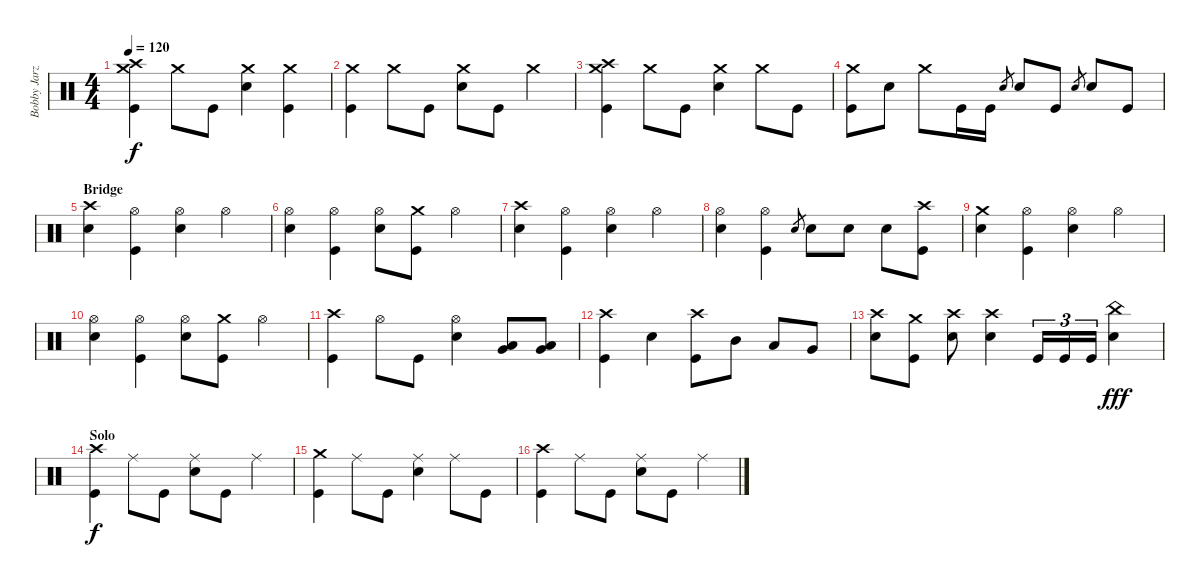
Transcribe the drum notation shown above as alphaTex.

\track ("Bobby Jarzombek" "Bobby Jarz") {instrument percussion}
\staff {score}
\articulation defaults
\ts (4 4)
\tempo 120
\clef neutral
\ks c
("Crash high (hit)" "Crash medium (hit)" "Kick (hit)").4{dy f} "Crash medium (hit)".8 "Kick (hit)".8 ("Crash medium (hit)" "Electric Snare (hit)").4 ("Crash medium (hit)" "Kick (hit)").4 |
("Crash medium (hit)" "Kick (hit)").4 "Crash medium (hit)".8 "Kick (hit)".8 ("Crash medium (hit)" "Electric Snare (hit)").8 "Kick (hit)".8 "Crash medium (hit)".4 |
("Crash high (hit)" "Crash medium (hit)" "Kick (hit)").4 "Crash medium (hit)".8 "Kick (hit)".8 ("Crash medium (hit)" "Electric Snare (hit)").4 "Crash medium (hit)".8 "Kick (hit)".8 |
("Crash medium (hit)" "Kick (hit)").8 "Electric Snare (hit)".8 "Crash medium (hit)".8 "Kick (hit)".16 "Kick (hit)".16 "Electric Snare (hit)".8{gr} "Electric Snare (hit)".8 "Kick (hit)".8 "Electric Snare (hit)".8{gr} "Electric Snare (hit)".8 "Kick (hit)".8 |
\section ("" "Bridge")
("Crash high (hit)" "Electric Snare (hit)").4 ("Hi-Hat (open)" "Kick (hit)").4 ("Hi-Hat (open)" "Electric Snare (hit)").4 "Hi-Hat (open)".4 |
("Hi-Hat (open)" "Electric Snare (hit)").4 ("Hi-Hat (open)" "Kick (hit)").4 ("Hi-Hat (open)" "Electric Snare (hit)").8 ("Crash medium (hit)" "Kick (hit)").8 "Hi-Hat (open)".4 |
("Crash high (hit)" "Electric Snare (hit)").4 ("Hi-Hat (open)" "Kick (hit)").4 ("Hi-Hat (open)" "Electric Snare (hit)").4 "Hi-Hat (open)".4 |
("Hi-Hat (open)" "Electric Snare (hit)").4 ("Hi-Hat (open)" "Kick (hit)").4 "Electric Snare (hit)".8{gr} "Electric Snare (hit)".8 "Electric Snare (hit)".8 "Electric Snare (hit)".8 ("Crash high (hit)" "Kick (hit)").8 |
("Crash medium (hit)" "Electric Snare (hit)").4 ("Hi-Hat (open)" "Kick (hit)").4 ("Hi-Hat (open)" "Electric Snare (hit)").4 "Hi-Hat (open)".4 |
("Hi-Hat (open)" "Electric Snare (hit)").4 ("Hi-Hat (open)" "Kick (hit)").4 ("Hi-Hat (open)" "Electric Snare (hit)").8 ("Crash medium (hit)" "Kick (hit)").8 "Hi-Hat (open)".4 |
("Crash high (hit)" "Kick (hit)").4 "Hi-Hat (open)".8 "Kick (hit)".8 ("Hi-Hat (open)" "Electric Snare (hit)").4 ("Very Low Tom (hit)" "Low Tom (hit)").8 ("Very Low Tom (hit)" "Low Tom (hit)").8 |
("Crash high (hit)" "Kick (hit)").4 "Electric Snare (hit)".4 ("Crash high (hit)" "Kick (hit)").8 "Mid Tom (hit)".8 "Low Tom (hit)".8 "Very Low Tom (hit)".8 |
("Crash high (hit)" "Electric Snare (hit)").8 ("Crash medium (hit)" "Kick (hit)").8 ("Crash high (hit)" "Electric Snare (hit)").8 ("Crash high (hit)" "Electric Snare (hit)").4 "Kick (hit)".16{tu (3 2)} "Kick (hit)".16{tu (3 2)} "Kick (hit)".16{tu (3 2)} ("China (hit)" "Electric Snare (hit)").4{dy fff} |
\section ("" "Solo")
("Crash high (hit)" "Kick (hit)").4{dy f} "Ride (middle)".8 "Kick (hit)".8 ("Ride (middle)" "Electric Snare (hit)").8 "Kick (hit)".8 "Ride (middle)".4 |
("Crash medium (hit)" "Kick (hit)").4 "Ride (middle)".8 "Kick (hit)".8 ("Ride (middle)" "Electric Snare (hit)").4 "Ride (middle)".8 "Kick (hit)".8 |
("Crash high (hit)" "Kick (hit)").4 "Ride (middle)".8 "Kick (hit)".8 ("Ride (middle)" "Electric Snare (hit)").8 "Kick (hit)".8 "Ride (middle)".4
